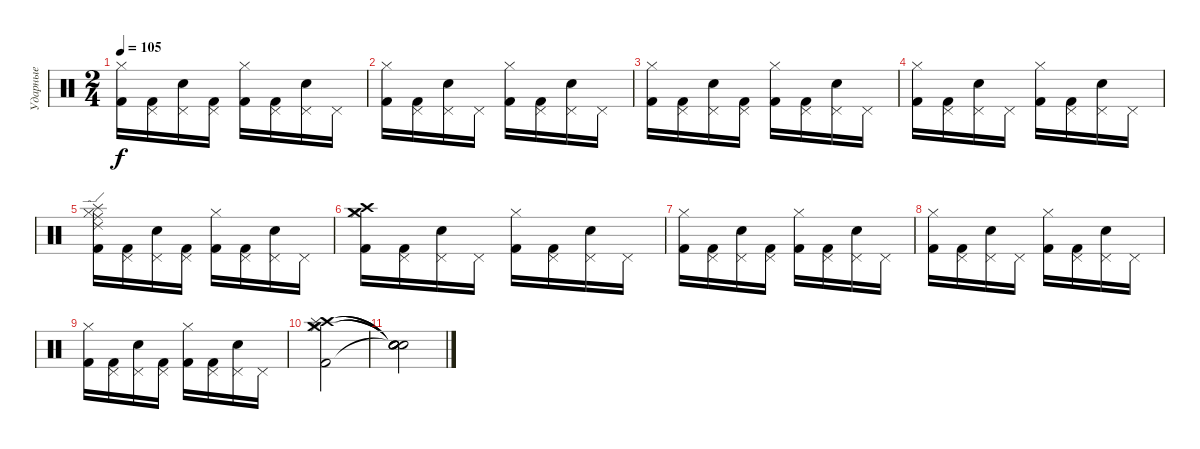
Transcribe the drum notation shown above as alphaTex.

\track ("Ударные" "Ударные") {instrument percussion}
\staff {score}
\articulation defaults
\ts (2 4)
\tempo 105
\clef neutral
\ks c
("Hi-Hat (closed)" "Kick (hit) 2").16{dy f} ("Pedal Hi-Hat (hit)" "Kick (hit) 2").16 ("Pedal Hi-Hat (hit)" "Snare (hit) 2").16 ("Pedal Hi-Hat (hit)" "Kick (hit) 2").16 ("Hi-Hat (closed)" "Kick (hit) 2").16 ("Pedal Hi-Hat (hit)" "Kick (hit) 2").16 ("Pedal Hi-Hat (hit)" "Snare (hit) 2").16 "Pedal Hi-Hat (hit)".16 |
("Hi-Hat (closed)" "Kick (hit) 2").16 ("Pedal Hi-Hat (hit)" "Kick (hit) 2").16 ("Pedal Hi-Hat (hit)" "Snare (hit) 2").16 "Pedal Hi-Hat (hit)".16 ("Hi-Hat (closed)" "Kick (hit) 2").16 ("Pedal Hi-Hat (hit)" "Kick (hit) 2").16 ("Pedal Hi-Hat (hit)" "Snare (hit) 2").16 "Pedal Hi-Hat (hit)".16 |
("Hi-Hat (closed)" "Kick (hit) 2").16 ("Pedal Hi-Hat (hit)" "Kick (hit) 2").16 ("Pedal Hi-Hat (hit)" "Snare (hit) 2").16 ("Pedal Hi-Hat (hit)" "Kick (hit) 2").16 ("Hi-Hat (closed)" "Kick (hit) 2").16 ("Pedal Hi-Hat (hit)" "Kick (hit) 2").16 ("Pedal Hi-Hat (hit)" "Snare (hit) 2").16 "Pedal Hi-Hat (hit)".16 |
("Hi-Hat (closed)" "Kick (hit) 2").16 ("Pedal Hi-Hat (hit)" "Kick (hit) 2").16 ("Pedal Hi-Hat (hit)" "Snare (hit) 2").16 "Pedal Hi-Hat (hit)".16 ("Hi-Hat (closed)" "Kick (hit) 2").16 ("Pedal Hi-Hat (hit)" "Kick (hit) 2").16 ("Pedal Hi-Hat (hit)" "Snare (hit) 2").16 "Pedal Hi-Hat (hit)".16 |
("Hi-Hat (closed)" "Splash (hit)" "Ride (middle)" "Ride (edge) 2" "Kick (hit) 2").16 ("Pedal Hi-Hat (hit)" "Kick (hit) 2").16 ("Pedal Hi-Hat (hit)" "Snare (hit) 2").16 ("Pedal Hi-Hat (hit)" "Kick (hit) 2").16 ("Hi-Hat (closed)" "Kick (hit) 2").16 ("Pedal Hi-Hat (hit)" "Kick (hit) 2").16 ("Pedal Hi-Hat (hit)" "Snare (hit) 2").16 "Pedal Hi-Hat (hit)".16 |
("Hi-Hat (closed)" "Crash medium (hit)" "Crash high (hit)" "Kick (hit) 2").16 ("Pedal Hi-Hat (hit)" "Kick (hit) 2").16 ("Pedal Hi-Hat (hit)" "Snare (hit) 2").16 "Pedal Hi-Hat (hit)".16 ("Hi-Hat (closed)" "Kick (hit) 2").16 ("Pedal Hi-Hat (hit)" "Kick (hit) 2").16 ("Pedal Hi-Hat (hit)" "Snare (hit) 2").16 "Pedal Hi-Hat (hit)".16 |
("Hi-Hat (closed)" "Kick (hit) 2").16 ("Pedal Hi-Hat (hit)" "Kick (hit) 2").16 ("Pedal Hi-Hat (hit)" "Snare (hit) 2").16 ("Pedal Hi-Hat (hit)" "Kick (hit) 2").16 ("Hi-Hat (closed)" "Kick (hit) 2").16 ("Pedal Hi-Hat (hit)" "Kick (hit) 2").16 ("Pedal Hi-Hat (hit)" "Snare (hit) 2").16 "Pedal Hi-Hat (hit)".16 |
("Hi-Hat (closed)" "Kick (hit) 2").16 ("Pedal Hi-Hat (hit)" "Kick (hit) 2").16 ("Pedal Hi-Hat (hit)" "Snare (hit) 2").16 "Pedal Hi-Hat (hit)".16 ("Hi-Hat (closed)" "Kick (hit) 2").16 ("Pedal Hi-Hat (hit)" "Kick (hit) 2").16 ("Pedal Hi-Hat (hit)" "Snare (hit) 2").16 "Pedal Hi-Hat (hit)".16 |
("Hi-Hat (closed)" "Kick (hit) 2").16 ("Pedal Hi-Hat (hit)" "Kick (hit) 2").16 ("Pedal Hi-Hat (hit)" "Snare (hit) 2").16 ("Pedal Hi-Hat (hit)" "Kick (hit) 2").16 ("Hi-Hat (closed)" "Kick (hit) 2").16 ("Pedal Hi-Hat (hit)" "Kick (hit) 2").16 ("Pedal Hi-Hat (hit)" "Snare (hit) 2").16 "Pedal Hi-Hat (hit)".16 |
("Hi-Hat (closed)" "Crash medium (hit)" "Crash high (hit)" "Splash (hit)" "Kick (hit) 2").2 |
("Snare (hit)"{t} "Snare (hit)"{t} "Snare (hit)"{t} "Snare (hit)"{t} "Snare (hit)"{t}).2
